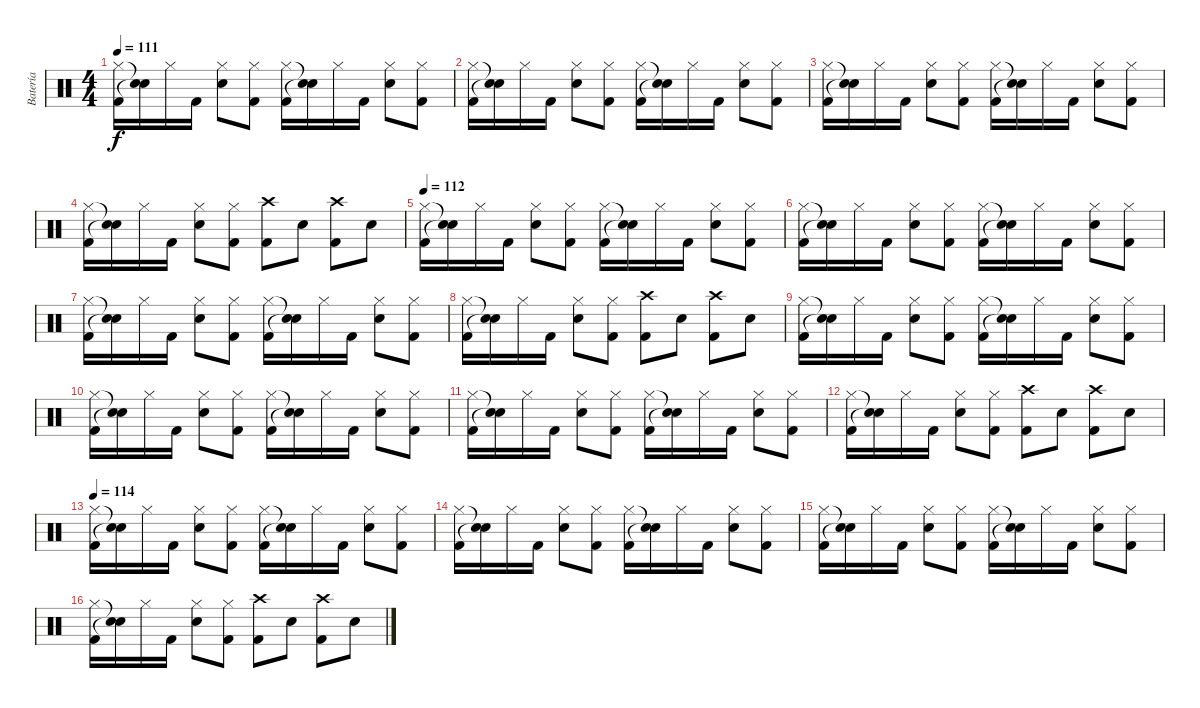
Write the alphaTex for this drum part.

\track ("Batería" "Batería") {instrument percussion}
\staff {score}
\articulation defaults
\ts (4 4)
\tempo 111
\clef neutral
\ks c
("Hi-Hat (closed)" "Kick (hit) 2").16{dy f} ("Snare (hit)"{t} "Snare (hit)"{t}).16 "Hi-Hat (closed)".16 "Kick (hit) 2".16 ("Hi-Hat (closed)" "Snare (hit) 2").8 ("Hi-Hat (closed)" "Kick (hit) 2").8 ("Hi-Hat (closed)" "Kick (hit) 2").16 ("Snare (hit)"{t} "Snare (hit)"{t}).16 "Hi-Hat (closed)".16 "Kick (hit) 2".16 ("Hi-Hat (closed)" "Snare (hit) 2").8 ("Hi-Hat (closed)" "Kick (hit) 2").8 |
("Hi-Hat (closed)" "Kick (hit) 2").16 ("Snare (hit)"{t} "Snare (hit)"{t}).16 "Hi-Hat (closed)".16 "Kick (hit) 2".16 ("Hi-Hat (closed)" "Snare (hit) 2").8 ("Hi-Hat (closed)" "Kick (hit) 2").8 ("Hi-Hat (closed)" "Kick (hit) 2").16 ("Snare (hit)"{t} "Snare (hit)"{t}).16 "Hi-Hat (closed)".16 "Kick (hit) 2".16 ("Hi-Hat (closed)" "Snare (hit) 2").8 ("Hi-Hat (closed)" "Kick (hit) 2").8 |
("Hi-Hat (closed)" "Kick (hit) 2").16 ("Snare (hit)"{t} "Snare (hit)"{t}).16 "Hi-Hat (closed)".16 "Kick (hit) 2".16 ("Hi-Hat (closed)" "Snare (hit) 2").8 ("Hi-Hat (closed)" "Kick (hit) 2").8 ("Hi-Hat (closed)" "Kick (hit) 2").16 ("Snare (hit)"{t} "Snare (hit)"{t}).16 "Hi-Hat (closed)".16 "Kick (hit) 2".16 ("Hi-Hat (closed)" "Snare (hit) 2").8 ("Hi-Hat (closed)" "Kick (hit) 2").8 |
("Hi-Hat (closed)" "Kick (hit) 2").16 ("Snare (hit)"{t} "Snare (hit)"{t}).16 "Hi-Hat (closed)".16 "Kick (hit) 2".16 ("Hi-Hat (closed)" "Snare (hit) 2").8 ("Hi-Hat (closed)" "Kick (hit) 2").8 ("Crash high (hit)" "Kick (hit) 2").8 "Snare (hit) 2".8 ("Crash high (hit)" "Kick (hit) 2").8 "Snare (hit) 2".8 |
\tempo 112
("Hi-Hat (closed)" "Kick (hit) 2").16 ("Snare (hit)"{t} "Snare (hit)"{t}).16 "Hi-Hat (closed)".16 "Kick (hit) 2".16 ("Hi-Hat (closed)" "Snare (hit) 2").8 ("Hi-Hat (closed)" "Kick (hit) 2").8 ("Hi-Hat (closed)" "Kick (hit) 2").16 ("Snare (hit)"{t} "Snare (hit)"{t}).16 "Hi-Hat (closed)".16 "Kick (hit) 2".16 ("Hi-Hat (closed)" "Snare (hit) 2").8 ("Hi-Hat (closed)" "Kick (hit) 2").8 |
("Hi-Hat (closed)" "Kick (hit) 2").16 ("Snare (hit)"{t} "Snare (hit)"{t}).16 "Hi-Hat (closed)".16 "Kick (hit) 2".16 ("Hi-Hat (closed)" "Snare (hit) 2").8 ("Hi-Hat (closed)" "Kick (hit) 2").8 ("Hi-Hat (closed)" "Kick (hit) 2").16 ("Snare (hit)"{t} "Snare (hit)"{t}).16 "Hi-Hat (closed)".16 "Kick (hit) 2".16 ("Hi-Hat (closed)" "Snare (hit) 2").8 ("Hi-Hat (closed)" "Kick (hit) 2").8 |
("Hi-Hat (closed)" "Kick (hit) 2").16 ("Snare (hit)"{t} "Snare (hit)"{t}).16 "Hi-Hat (closed)".16 "Kick (hit) 2".16 ("Hi-Hat (closed)" "Snare (hit) 2").8 ("Hi-Hat (closed)" "Kick (hit) 2").8 ("Hi-Hat (closed)" "Kick (hit) 2").16 ("Snare (hit)"{t} "Snare (hit)"{t}).16 "Hi-Hat (closed)".16 "Kick (hit) 2".16 ("Hi-Hat (closed)" "Snare (hit) 2").8 ("Hi-Hat (closed)" "Kick (hit) 2").8 |
("Hi-Hat (closed)" "Kick (hit) 2").16 ("Snare (hit)"{t} "Snare (hit)"{t}).16 "Hi-Hat (closed)".16 "Kick (hit) 2".16 ("Hi-Hat (closed)" "Snare (hit) 2").8 ("Hi-Hat (closed)" "Kick (hit) 2").8 ("Crash high (hit)" "Kick (hit) 2").8 "Snare (hit) 2".8 ("Crash high (hit)" "Kick (hit) 2").8 "Snare (hit) 2".8 |
("Hi-Hat (closed)" "Kick (hit) 2").16 ("Snare (hit)"{t} "Snare (hit)"{t}).16 "Hi-Hat (closed)".16 "Kick (hit) 2".16 ("Hi-Hat (closed)" "Snare (hit) 2").8 ("Hi-Hat (closed)" "Kick (hit) 2").8 ("Hi-Hat (closed)" "Kick (hit) 2").16 ("Snare (hit)"{t} "Snare (hit)"{t}).16 "Hi-Hat (closed)".16 "Kick (hit) 2".16 ("Hi-Hat (closed)" "Snare (hit) 2").8 ("Hi-Hat (closed)" "Kick (hit) 2").8 |
("Hi-Hat (closed)" "Kick (hit) 2").16 ("Snare (hit)"{t} "Snare (hit)"{t}).16 "Hi-Hat (closed)".16 "Kick (hit) 2".16 ("Hi-Hat (closed)" "Snare (hit) 2").8 ("Hi-Hat (closed)" "Kick (hit) 2").8 ("Hi-Hat (closed)" "Kick (hit) 2").16 ("Snare (hit)"{t} "Snare (hit)"{t}).16 "Hi-Hat (closed)".16 "Kick (hit) 2".16 ("Hi-Hat (closed)" "Snare (hit) 2").8 ("Hi-Hat (closed)" "Kick (hit) 2").8 |
("Hi-Hat (closed)" "Kick (hit) 2").16 ("Snare (hit)"{t} "Snare (hit)"{t}).16 "Hi-Hat (closed)".16 "Kick (hit) 2".16 ("Hi-Hat (closed)" "Snare (hit) 2").8 ("Hi-Hat (closed)" "Kick (hit) 2").8 ("Hi-Hat (closed)" "Kick (hit) 2").16 ("Snare (hit)"{t} "Snare (hit)"{t}).16 "Hi-Hat (closed)".16 "Kick (hit) 2".16 ("Hi-Hat (closed)" "Snare (hit) 2").8 ("Hi-Hat (closed)" "Kick (hit) 2").8 |
("Hi-Hat (closed)" "Kick (hit) 2").16 ("Snare (hit)"{t} "Snare (hit)"{t}).16 "Hi-Hat (closed)".16 "Kick (hit) 2".16 ("Hi-Hat (closed)" "Snare (hit) 2").8 ("Hi-Hat (closed)" "Kick (hit) 2").8 ("Crash high (hit)" "Kick (hit) 2").8 "Snare (hit) 2".8 ("Crash high (hit)" "Kick (hit) 2").8 "Snare (hit) 2".8 |
\tempo 114
("Hi-Hat (closed)" "Kick (hit) 2").16 ("Snare (hit)"{t} "Snare (hit)"{t}).16 "Hi-Hat (closed)".16 "Kick (hit) 2".16 ("Hi-Hat (closed)" "Snare (hit) 2").8 ("Hi-Hat (closed)" "Kick (hit) 2").8 ("Hi-Hat (closed)" "Kick (hit) 2").16 ("Snare (hit)"{t} "Snare (hit)"{t}).16 "Hi-Hat (closed)".16 "Kick (hit) 2".16 ("Hi-Hat (closed)" "Snare (hit) 2").8 ("Hi-Hat (closed)" "Kick (hit) 2").8 |
("Hi-Hat (closed)" "Kick (hit) 2").16 ("Snare (hit)"{t} "Snare (hit)"{t}).16 "Hi-Hat (closed)".16 "Kick (hit) 2".16 ("Hi-Hat (closed)" "Snare (hit) 2").8 ("Hi-Hat (closed)" "Kick (hit) 2").8 ("Hi-Hat (closed)" "Kick (hit) 2").16 ("Snare (hit)"{t} "Snare (hit)"{t}).16 "Hi-Hat (closed)".16 "Kick (hit) 2".16 ("Hi-Hat (closed)" "Snare (hit) 2").8 ("Hi-Hat (closed)" "Kick (hit) 2").8 |
("Hi-Hat (closed)" "Kick (hit) 2").16 ("Snare (hit)"{t} "Snare (hit)"{t}).16 "Hi-Hat (closed)".16 "Kick (hit) 2".16 ("Hi-Hat (closed)" "Snare (hit) 2").8 ("Hi-Hat (closed)" "Kick (hit) 2").8 ("Hi-Hat (closed)" "Kick (hit) 2").16 ("Snare (hit)"{t} "Snare (hit)"{t}).16 "Hi-Hat (closed)".16 "Kick (hit) 2".16 ("Hi-Hat (closed)" "Snare (hit) 2").8 ("Hi-Hat (closed)" "Kick (hit) 2").8 |
("Hi-Hat (closed)" "Kick (hit) 2").16 ("Snare (hit)"{t} "Snare (hit)"{t}).16 "Hi-Hat (closed)".16 "Kick (hit) 2".16 ("Hi-Hat (closed)" "Snare (hit) 2").8 ("Hi-Hat (closed)" "Kick (hit) 2").8 ("Crash high (hit)" "Kick (hit) 2").8 "Snare (hit) 2".8 ("Crash high (hit)" "Kick (hit) 2").8 "Snare (hit) 2".8
